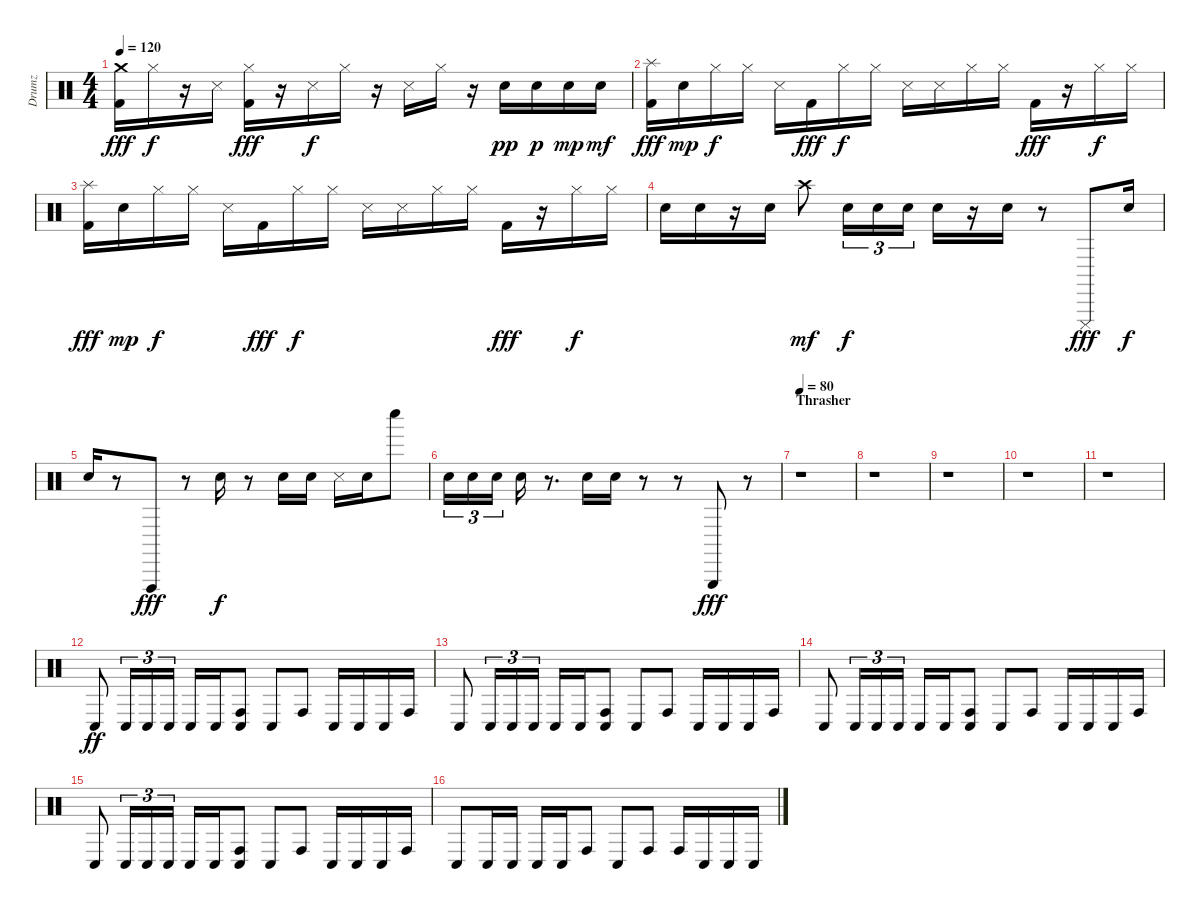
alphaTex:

\track ("Drumz" "Drumz") {instrument percussion}
\staff {score}
\articulation defaults
\ts (4 4)
\tempo 120
\clef neutral
\ks c
("Crash medium (hit)" "Kick (hit) 2").16{dy fff} "Hi-Hat (closed)".16{dy f} r.16 "Snare (side stick) 3".16 ("Hi-Hat (closed)" "Kick (hit) 2").16{dy fff} r.16 "Snare (side stick) 3".16{dy f} "Hi-Hat (closed)".16 r.16 "Snare (side stick) 3".16 "Hi-Hat (closed)".16 r.16 "Snare (hit) 2".16{dy pp} "Snare (hit) 2".16{dy p} "Snare (hit) 2".16{dy mp} "Snare (hit) 2".16{dy mf} |
("Splash (hit)" "Kick (hit) 2").16{dy fff} "Snare (hit) 2".16{dy mp} "Hi-Hat (closed)".16{dy f} "Hi-Hat (closed)".16 "Snare (side stick) 3".16 "Kick (hit) 2".16{dy fff} "Hi-Hat (closed)".16{dy f} "Hi-Hat (closed)".16 "Snare (side stick) 3".16 "Snare (side stick) 3".16 "Hi-Hat (closed)".16 "Hi-Hat (closed)".16 "Kick (hit) 2".16{dy fff} r.16 "Hi-Hat (closed)".16{dy f} "Hi-Hat (closed)".16 |
("Splash (hit)" "Kick (hit) 2").16{dy fff} "Snare (hit) 2".16{dy mp} "Hi-Hat (closed)".16{dy f} "Hi-Hat (closed)".16 "Snare (side stick) 3".16 "Kick (hit) 2".16{dy fff} "Hi-Hat (closed)".16{dy f} "Hi-Hat (closed)".16 "Snare (side stick) 3".16 "Snare (side stick) 3".16 "Hi-Hat (closed)".16 "Hi-Hat (closed)".16 "Kick (hit) 2".16{dy fff} r.16 "Hi-Hat (closed)".16{dy f} "Hi-Hat (closed)".16 |
"Snare (hit) 2".16 "Snare (hit) 2".16 r.16 "Snare (hit) 2".16 "Crash high (hit)".8{dy mf} "Snare (hit) 2".16{tu (3 2) dy f} "Snare (hit) 2".16{tu (3 2)} "Snare (hit) 2".16{tu (3 2)} "Snare (hit) 2".16 r.16 "Snare (hit) 2".16 r.8 "Cuica (mute)".8{dy fff} "Snare (hit) 2".16{dy f} |
"Snare (hit) 2".16 r.8 "Vibraslap (hit)".8{dy fff} r.8 "Snare (hit) 2".16{dy f} r.8 "Snare (hit) 2".16 "Snare (hit) 2".16 "Snare (side stick) 3".16 "Snare (hit) 2".16 "Whistle low (hit)".8 |
"Snare (hit) 2".16{tu (3 2)} "Snare (hit) 2".16{tu (3 2)} "Snare (hit) 2".16{tu (3 2)} "Snare (hit) 2".16 r.8{d} "Snare (hit) 2".16 "Snare (hit) 2".16 r.8 r.8 "Triangle (hit)".8{dy fff} r.8 |
\section ("" "Thrasher")
\tempo 80
r.1 |
r.1 |
r.1 |
r.1 |
r.1 |
"Conga low (hit)".8{dy ff} "Conga low (hit)".16{tu (3 2)} "Conga low (hit)".16{tu (3 2)} "Conga low (hit)".16{tu (3 2)} "Conga low (hit)".16 "Conga low (hit)".16 ("Conga low (hit)" "Conga high (hit)").8 "Conga low (hit)".8 "Conga high (hit)".8 "Conga low (hit)".16 "Conga low (hit)".16 "Conga low (hit)".16 "Conga high (hit)".16 |
"Conga low (hit)".8 "Conga low (hit)".16{tu (3 2)} "Conga low (hit)".16{tu (3 2)} "Conga low (hit)".16{tu (3 2)} "Conga low (hit)".16 "Conga low (hit)".16 ("Conga low (hit)" "Conga high (hit)").8 "Conga low (hit)".8 "Conga high (hit)".8 "Conga low (hit)".16 "Conga low (hit)".16 "Conga low (hit)".16 "Conga high (hit)".16 |
"Conga low (hit)".8 "Conga low (hit)".16{tu (3 2)} "Conga low (hit)".16{tu (3 2)} "Conga low (hit)".16{tu (3 2)} "Conga low (hit)".16 "Conga low (hit)".16 ("Conga low (hit)" "Conga high (hit)").8 "Conga low (hit)".8 "Conga high (hit)".8 "Conga low (hit)".16 "Conga low (hit)".16 "Conga low (hit)".16 "Conga high (hit)".16 |
"Conga low (hit)".8 "Conga low (hit)".16{tu (3 2)} "Conga low (hit)".16{tu (3 2)} "Conga low (hit)".16{tu (3 2)} "Conga low (hit)".16 "Conga low (hit)".16 ("Conga low (hit)" "Conga high (hit)").8 "Conga low (hit)".8 "Conga high (hit)".8 "Conga low (hit)".16 "Conga low (hit)".16 "Conga low (hit)".16 "Conga high (hit)".16 |
"Conga low (hit)".8 "Conga low (hit)".16 "Conga low (hit)".16 "Conga low (hit)".16 "Conga low (hit)".16 "Conga high (hit)".8 "Conga low (hit)".8 "Conga high (hit)".8 "Conga high (hit)".16 "Conga low (hit)".16 "Conga low (hit)".16 "Conga low (hit)".16
